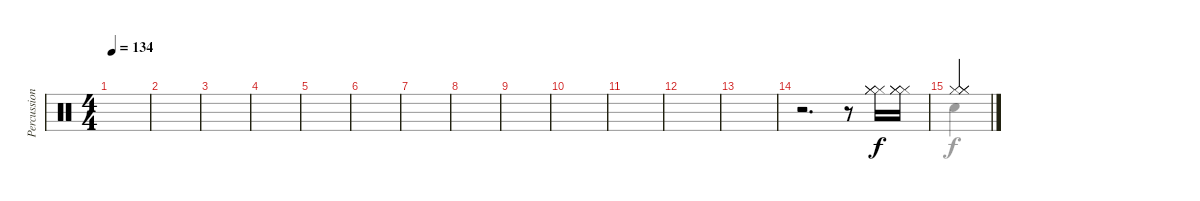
\track ("Percussion" "Percussion") {instrument percussion}
\staff {score}
\articulation defaults
\voice
\ts (4 4)
\tempo 134
\clef neutral
\ks c
|
|
|
|
|
|
|
|
|
|
|
|
|
r.2{d} r.8 ("Hi-Hat (closed)" "Hi-Hat (closed)" "Hi-Hat (closed)").16 ("Hi-Hat (closed)" "Hi-Hat (closed)" "Hi-Hat (closed)").16 |
("Hi-Hat (closed)" "Hi-Hat (closed)" "Hi-Hat (closed)").4 |
\voice
\clef neutral
\ottava regular
\simile none
\ks c
|
|
|
|
|
|
|
|
|
|
|
|
|
|
"Snare (hit)".4 |
